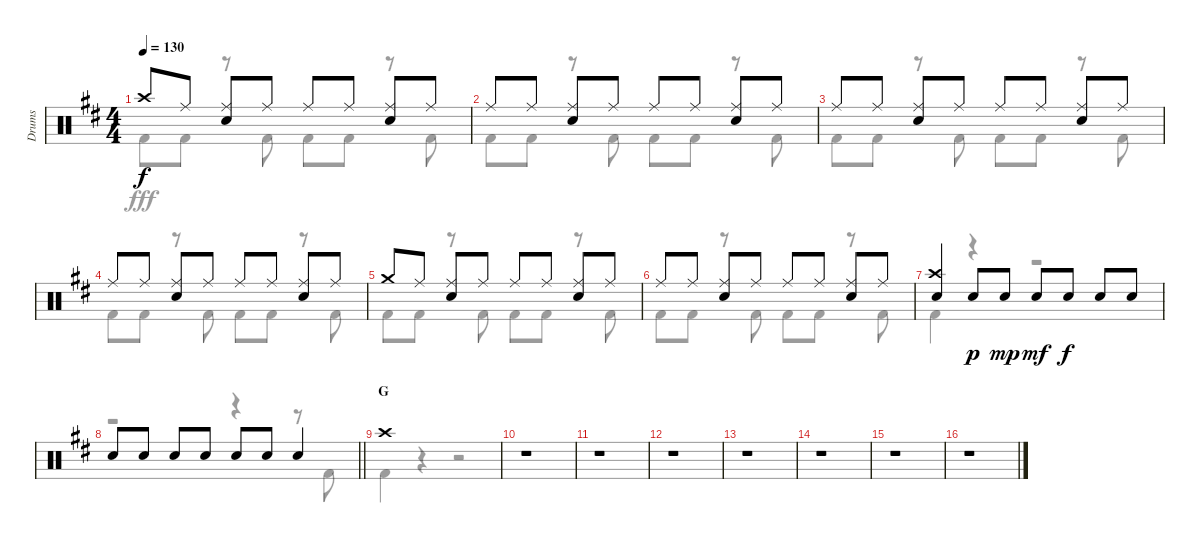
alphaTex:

\track ("Drums" "Drums") {instrument percussion}
\staff {score}
\articulation defaults
\voice
\ts (4 4)
\tempo 130
\clef neutral
\ks d "Crash high (hit)".8{dy f} "Ride (middle)".8
("Ride (middle)" "Snare (hit) 2").8 "Ride (middle)".8 "Ride (middle)".8 "Ride (middle)".8 ("Ride (middle)" "Snare (hit) 2").8 "Ride (middle)".8 |
"Ride (middle)".8 "Ride (middle)".8 ("Ride (middle)" "Snare (hit) 2").8 "Ride (middle)".8 "Ride (middle)".8 "Ride (middle)".8 ("Ride (middle)" "Snare (hit) 2").8 "Ride (middle)".8 |
"Ride (middle)".8 "Ride (middle)".8 ("Ride (middle)" "Snare (hit) 2").8 "Ride (middle)".8 "Ride (middle)".8 "Ride (middle)".8 ("Ride (middle)" "Snare (hit) 2").8 "Ride (middle)".8 |
"Ride (middle)".8 "Ride (middle)".8 ("Ride (middle)" "Snare (hit) 2").8 "Ride (middle)".8 "Ride (middle)".8 "Ride (middle)".8 ("Ride (middle)" "Snare (hit) 2").8 "Ride (middle)".8 |
"Crash medium (hit)".8 "Ride (middle)".8 ("Ride (middle)" "Snare (hit) 2").8 "Ride (middle)".8 "Ride (middle)".8 "Ride (middle)".8 ("Ride (middle)" "Snare (hit) 2").8 "Ride (middle)".8 |
"Ride (middle)".8 "Ride (middle)".8 ("Ride (middle)" "Snare (hit) 2").8 "Ride (middle)".8 "Ride (middle)".8 "Ride (middle)".8 ("Ride (middle)" "Snare (hit) 2").8 "Ride (middle)".8 |
("Crash high (hit)" "Snare (hit) 2").4 "Snare (hit) 2".8{dy p} "Snare (hit) 2".8{dy mp} "Snare (hit) 2".8{dy mf} "Snare (hit) 2".8{dy f} "Snare (hit) 2".8 "Snare (hit) 2".8 |
\barLineRight lightlight "Snare (hit) 2".8 "Snare (hit) 2".8 "Snare (hit) 2".8 "Snare (hit) 2".8 "Snare (hit) 2".8 "Snare (hit) 2".8 "Snare (hit) 2".4
|
\section ("" "G")
"Crash high (hit)".1 |
r.1 |
r.1 |
r.1 |
r.1 |
r.1 |
r.1 |
r.1
\voice
\clef neutral
\ottava regular
\simile none
\ks d "Kick (hit) 2".8{dy fff} "Kick (hit) 2".8
r.8 "Kick (hit) 2".8 "Kick (hit) 2".8 "Kick (hit) 2".8 r.8 "Kick (hit) 2".8 |
"Kick (hit) 2".8 "Kick (hit) 2".8 r.8 "Kick (hit) 2".8 "Kick (hit) 2".8 "Kick (hit) 2".8 r.8 "Kick (hit) 2".8 |
"Kick (hit) 2".8 "Kick (hit) 2".8 r.8 "Kick (hit) 2".8 "Kick (hit) 2".8 "Kick (hit) 2".8 r.8 "Kick (hit) 2".8 |
"Kick (hit) 2".8 "Kick (hit) 2".8 r.8 "Kick (hit) 2".8 "Kick (hit) 2".8 "Kick (hit) 2".8 r.8 "Kick (hit) 2".8 |
"Kick (hit) 2".8 "Kick (hit) 2".8 r.8 "Kick (hit) 2".8 "Kick (hit) 2".8 "Kick (hit) 2".8 r.8 "Kick (hit) 2".8 |
"Kick (hit) 2".8 "Kick (hit) 2".8 r.8 "Kick (hit) 2".8 "Kick (hit) 2".8 "Kick (hit) 2".8 r.8 "Kick (hit) 2".8 |
"Kick (hit) 2".4 r.4 r.2 |
\barLineRight lightlight
r.2 r.4 r.8 "Kick (hit) 2".8 |
"Kick (hit) 2".4 r.4 r.2 |
r.1 |
r.1 |
r.1 |
r.1 |
r.1 |
r.1 |
r.1
